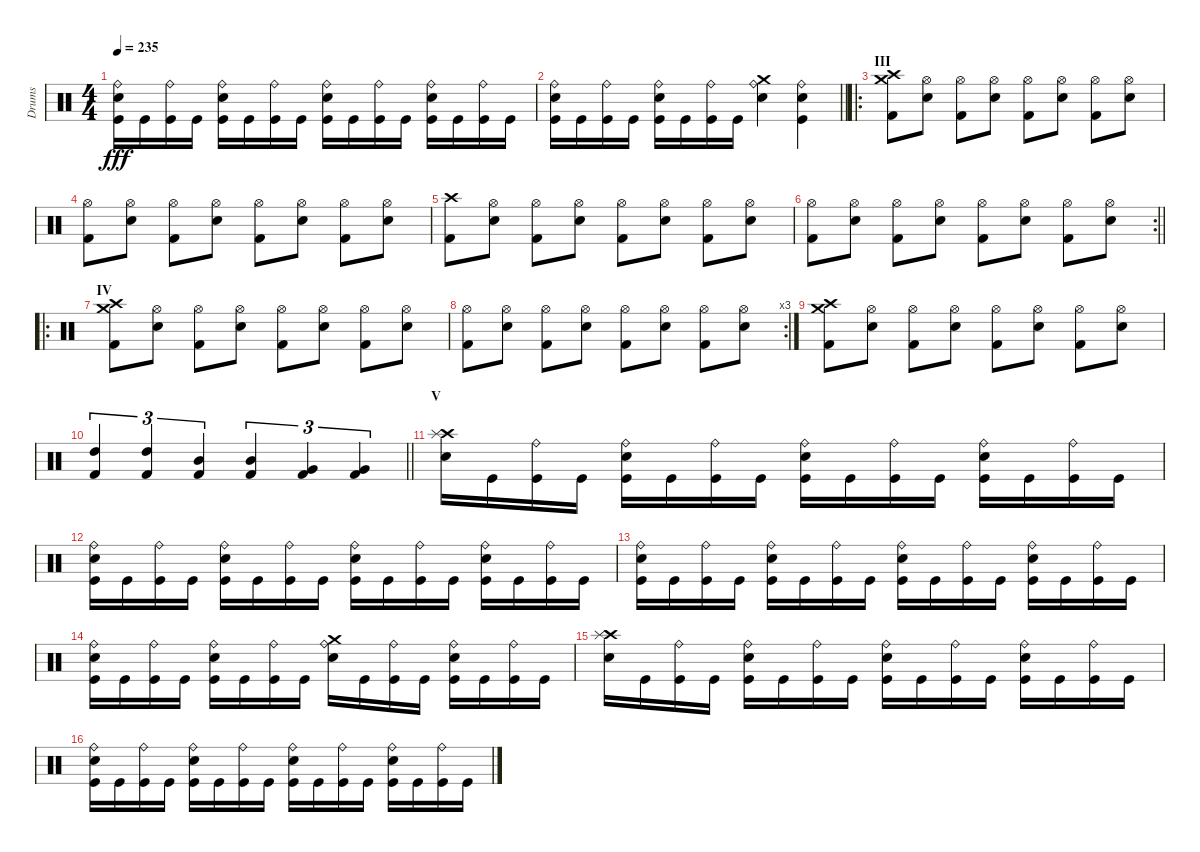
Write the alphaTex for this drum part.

\track ("Drums" "Drums") {instrument percussion}
\staff {score}
\articulation defaults
\ts (4 4)
\tempo 235
\clef neutral
\ks c
("Kick (hit)" "Electric Snare (hit)" "Ride (bell)").16{dy fff} "Kick (hit)".16 ("Kick (hit)" "Ride (bell)").16 "Kick (hit)".16 ("Kick (hit)" "Electric Snare (hit)" "Ride (bell)").16 "Kick (hit)".16 ("Kick (hit)" "Ride (bell)").16 "Kick (hit)".16 ("Kick (hit)" "Electric Snare (hit)" "Ride (bell)").16 "Kick (hit)".16 ("Kick (hit)" "Ride (bell)").16 "Kick (hit)".16 ("Kick (hit)" "Electric Snare (hit)" "Ride (bell)").16 "Kick (hit)".16 ("Kick (hit)" "Ride (bell)").16 "Kick (hit)".16 |
\barLineRight lightlight
("Kick (hit)" "Electric Snare (hit)" "Ride (bell)").16 "Kick (hit)".16 ("Kick (hit)" "Ride (bell)").16 "Kick (hit)".16 ("Kick (hit)" "Electric Snare (hit)" "Ride (bell)").16 "Kick (hit)".16 ("Kick (hit)" "Ride (bell)").16 "Kick (hit)".16 ("Crash medium (hit)" "Electric Snare (hit)" "Ride (bell)").4 ("Kick (hit)" "Electric Snare (hit)" "Ride (bell)").4 |
\ro
\section ("" "III")
("Crash high (hit)" "Crash medium (hit)" "Kick (hit) 2").8 ("Hi-Hat (open)" "Snare (hit) 2").8 ("Hi-Hat (open)" "Kick (hit) 2").8 ("Hi-Hat (open)" "Snare (hit) 2").8 ("Hi-Hat (open)" "Kick (hit) 2").8 ("Hi-Hat (open)" "Snare (hit) 2").8 ("Hi-Hat (open)" "Kick (hit) 2").8 ("Hi-Hat (open)" "Snare (hit) 2").8 |
("Hi-Hat (open)" "Kick (hit) 2").8 ("Hi-Hat (open)" "Snare (hit) 2").8 ("Hi-Hat (open)" "Kick (hit) 2").8 ("Hi-Hat (open)" "Snare (hit) 2").8 ("Hi-Hat (open)" "Kick (hit) 2").8 ("Hi-Hat (open)" "Snare (hit) 2").8 ("Hi-Hat (open)" "Kick (hit) 2").8 ("Hi-Hat (open)" "Snare (hit) 2").8 |
("Crash high (hit)" "Kick (hit) 2").8 ("Hi-Hat (open)" "Snare (hit) 2").8 ("Hi-Hat (open)" "Kick (hit) 2").8 ("Hi-Hat (open)" "Snare (hit) 2").8 ("Hi-Hat (open)" "Kick (hit) 2").8 ("Hi-Hat (open)" "Snare (hit) 2").8 ("Hi-Hat (open)" "Kick (hit) 2").8 ("Hi-Hat (open)" "Snare (hit) 2").8 |
\rc 2
\barLineRight lightlight
("Hi-Hat (open)" "Kick (hit) 2").8 ("Hi-Hat (open)" "Snare (hit) 2").8 ("Hi-Hat (open)" "Kick (hit) 2").8 ("Hi-Hat (open)" "Snare (hit) 2").8 ("Hi-Hat (open)" "Kick (hit) 2").8 ("Hi-Hat (open)" "Snare (hit) 2").8 ("Hi-Hat (open)" "Kick (hit) 2").8 ("Hi-Hat (open)" "Snare (hit) 2").8 |
\ro
\section ("" "IV")
("Crash high (hit)" "Crash medium (hit)" "Kick (hit) 2").8 ("Hi-Hat (open)" "Snare (hit) 2").8 ("Hi-Hat (open)" "Kick (hit) 2").8 ("Hi-Hat (open)" "Snare (hit) 2").8 ("Hi-Hat (open)" "Kick (hit) 2").8 ("Hi-Hat (open)" "Snare (hit) 2").8 ("Hi-Hat (open)" "Kick (hit) 2").8 ("Hi-Hat (open)" "Snare (hit) 2").8 |
\rc 3
("Hi-Hat (open)" "Kick (hit) 2").8 ("Hi-Hat (open)" "Snare (hit) 2").8 ("Hi-Hat (open)" "Kick (hit) 2").8 ("Hi-Hat (open)" "Snare (hit) 2").8 ("Hi-Hat (open)" "Kick (hit) 2").8 ("Hi-Hat (open)" "Snare (hit) 2").8 ("Hi-Hat (open)" "Kick (hit) 2").8 ("Hi-Hat (open)" "Snare (hit) 2").8 |
("Crash high (hit)" "Crash medium (hit)" "Kick (hit) 2").8 ("Hi-Hat (open)" "Snare (hit) 2").8 ("Hi-Hat (open)" "Kick (hit) 2").8 ("Hi-Hat (open)" "Snare (hit) 2").8 ("Hi-Hat (open)" "Kick (hit) 2").8 ("Hi-Hat (open)" "Snare (hit) 2").8 ("Hi-Hat (open)" "Kick (hit) 2").8 ("Hi-Hat (open)" "Snare (hit) 2").8 |
\barLineRight lightlight
("High Tom (hit)" "Kick (hit) 2").4{tu (3 2)} ("High Tom (hit)" "Kick (hit) 2").4{tu (3 2)} ("Mid Tom (hit)" "Kick (hit) 2").4{tu (3 2)} ("Mid Tom (hit)" "Kick (hit) 2").4{tu (3 2)} ("Very Low Tom (hit)" "Kick (hit) 2").4{tu (3 2)} ("Very Low Tom (hit)" "Kick (hit) 2").4{tu (3 2)} |
\section ("" "V")
("Crash high (hit)" "Electric Snare (hit)" "Splash (hit)").16 "Kick (hit)".16 ("Kick (hit)" "Ride (bell)").16 "Kick (hit)".16 ("Kick (hit)" "Electric Snare (hit)" "Ride (bell)").16 "Kick (hit)".16 ("Kick (hit)" "Ride (bell)").16 "Kick (hit)".16 ("Kick (hit)" "Electric Snare (hit)" "Ride (bell)").16 "Kick (hit)".16 ("Kick (hit)" "Ride (bell)").16 "Kick (hit)".16 ("Kick (hit)" "Electric Snare (hit)" "Ride (bell)").16 "Kick (hit)".16 ("Kick (hit)" "Ride (bell)").16 "Kick (hit)".16 |
("Kick (hit)" "Electric Snare (hit)" "Ride (bell)").16 "Kick (hit)".16 ("Kick (hit)" "Ride (bell)").16 "Kick (hit)".16 ("Kick (hit)" "Electric Snare (hit)" "Ride (bell)").16 "Kick (hit)".16 ("Kick (hit)" "Ride (bell)").16 "Kick (hit)".16 ("Kick (hit)" "Electric Snare (hit)" "Ride (bell)").16 "Kick (hit)".16 ("Kick (hit)" "Ride (bell)").16 "Kick (hit)".16 ("Kick (hit)" "Electric Snare (hit)" "Ride (bell)").16 "Kick (hit)".16 ("Kick (hit)" "Ride (bell)").16 "Kick (hit)".16 |
("Kick (hit)" "Electric Snare (hit)" "Ride (bell)").16 "Kick (hit)".16 ("Kick (hit)" "Ride (bell)").16 "Kick (hit)".16 ("Kick (hit)" "Electric Snare (hit)" "Ride (bell)").16 "Kick (hit)".16 ("Kick (hit)" "Ride (bell)").16 "Kick (hit)".16 ("Kick (hit)" "Electric Snare (hit)" "Ride (bell)").16 "Kick (hit)".16 ("Kick (hit)" "Ride (bell)").16 "Kick (hit)".16 ("Kick (hit)" "Electric Snare (hit)" "Ride (bell)").16 "Kick (hit)".16 ("Kick (hit)" "Ride (bell)").16 "Kick (hit)".16 |
("Kick (hit)" "Electric Snare (hit)" "Ride (bell)").16 "Kick (hit)".16 ("Kick (hit)" "Ride (bell)").16 "Kick (hit)".16 ("Kick (hit)" "Electric Snare (hit)" "Ride (bell)").16 "Kick (hit)".16 ("Kick (hit)" "Ride (bell)").16 "Kick (hit)".16 ("Crash medium (hit)" "Electric Snare (hit)" "Ride (bell)").16 "Kick (hit)".16 ("Kick (hit)" "Ride (bell)").16 "Kick (hit)".16 ("Kick (hit)" "Electric Snare (hit)" "Ride (bell)").16 "Kick (hit)".16 ("Kick (hit)" "Ride (bell)").16 "Kick (hit)".16 |
("Crash high (hit)" "Electric Snare (hit)" "Splash (hit)").16 "Kick (hit)".16 ("Kick (hit)" "Ride (bell)").16 "Kick (hit)".16 ("Kick (hit)" "Electric Snare (hit)" "Ride (bell)").16 "Kick (hit)".16 ("Kick (hit)" "Ride (bell)").16 "Kick (hit)".16 ("Kick (hit)" "Electric Snare (hit)" "Ride (bell)").16 "Kick (hit)".16 ("Kick (hit)" "Ride (bell)").16 "Kick (hit)".16 ("Kick (hit)" "Electric Snare (hit)" "Ride (bell)").16 "Kick (hit)".16 ("Kick (hit)" "Ride (bell)").16 "Kick (hit)".16 |
("Kick (hit)" "Electric Snare (hit)" "Ride (bell)").16 "Kick (hit)".16 ("Kick (hit)" "Ride (bell)").16 "Kick (hit)".16 ("Kick (hit)" "Electric Snare (hit)" "Ride (bell)").16 "Kick (hit)".16 ("Kick (hit)" "Ride (bell)").16 "Kick (hit)".16 ("Kick (hit)" "Electric Snare (hit)" "Ride (bell)").16 "Kick (hit)".16 ("Kick (hit)" "Ride (bell)").16 "Kick (hit)".16 ("Kick (hit)" "Electric Snare (hit)" "Ride (bell)").16 "Kick (hit)".16 ("Kick (hit)" "Ride (bell)").16 "Kick (hit)".16
